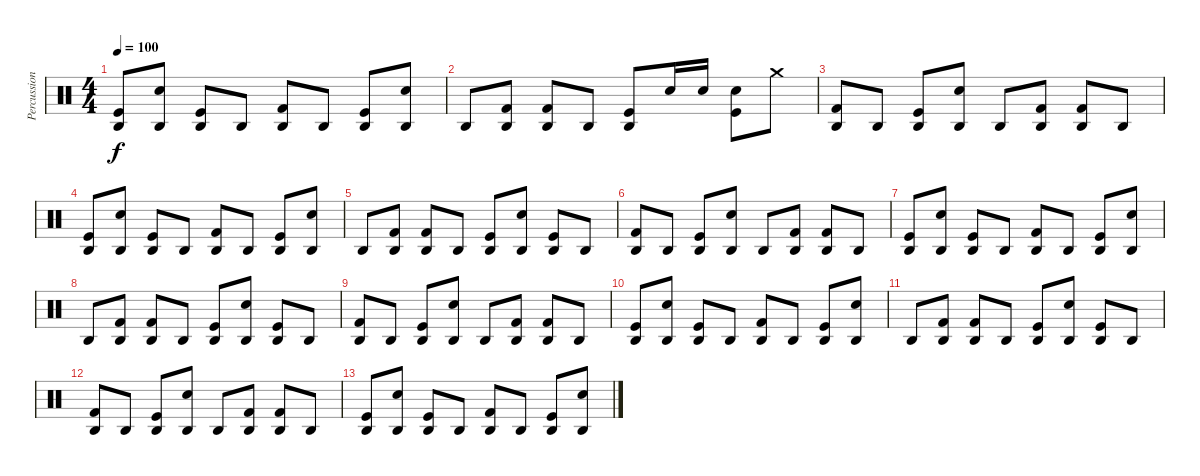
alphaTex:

\track ("Percussions" "Percussion") {instrument percussion}
\staff {score}
\articulation defaults
\ts (4 4)
\tempo 100
\clef neutral
\ks c
("Agogo high (hit)" "Kick (hit)").8{dy f} ("Agogo high (hit)" "Electric Snare (hit)").8 ("Agogo high (hit)" "Kick (hit)").8 "Agogo high (hit)".8 ("Agogo high (hit)" "Kick (hit) 2").8 "Agogo high (hit)".8 ("Agogo high (hit)" "Kick (hit)").8 ("Agogo high (hit)" "Electric Snare (hit)").8 |
"Agogo high (hit)".8 ("Agogo high (hit)" "Kick (hit) 2").8 ("Agogo high (hit)" "Kick (hit) 2").8 "Agogo high (hit)".8 ("Agogo high (hit)" "Kick (hit)").8 "Electric Snare (hit)".16 "Electric Snare (hit)".16 ("Electric Snare (hit)" "Kick (hit)").8 "Crash medium (hit)".8 |
("Agogo high (hit)" "Kick (hit) 2").8 "Agogo high (hit)".8 ("Agogo high (hit)" "Kick (hit)").8 ("Agogo high (hit)" "Electric Snare (hit)").8 "Agogo high (hit)".8 ("Agogo high (hit)" "Kick (hit) 2").8 ("Agogo high (hit)" "Kick (hit) 2").8 "Agogo high (hit)".8 |
("Agogo high (hit)" "Kick (hit)").8 ("Agogo high (hit)" "Electric Snare (hit)").8 ("Agogo high (hit)" "Kick (hit)").8 "Agogo high (hit)".8 ("Agogo high (hit)" "Kick (hit) 2").8 "Agogo high (hit)".8 ("Agogo high (hit)" "Kick (hit)").8 ("Agogo high (hit)" "Electric Snare (hit)").8 |
"Agogo high (hit)".8 ("Agogo high (hit)" "Kick (hit) 2").8 ("Agogo high (hit)" "Kick (hit) 2").8 "Agogo high (hit)".8 ("Agogo high (hit)" "Kick (hit)").8 ("Agogo high (hit)" "Electric Snare (hit)").8 ("Agogo high (hit)" "Kick (hit)").8 "Agogo high (hit)".8 |
("Agogo high (hit)" "Kick (hit) 2").8 "Agogo high (hit)".8 ("Agogo high (hit)" "Kick (hit)").8 ("Agogo high (hit)" "Electric Snare (hit)").8 "Agogo high (hit)".8 ("Agogo high (hit)" "Kick (hit) 2").8 ("Agogo high (hit)" "Kick (hit) 2").8 "Agogo high (hit)".8 |
("Agogo high (hit)" "Kick (hit)").8 ("Agogo high (hit)" "Electric Snare (hit)").8 ("Agogo high (hit)" "Kick (hit)").8 "Agogo high (hit)".8 ("Agogo high (hit)" "Kick (hit) 2").8 "Agogo high (hit)".8 ("Agogo high (hit)" "Kick (hit)").8 ("Agogo high (hit)" "Electric Snare (hit)").8 |
"Agogo high (hit)".8 ("Agogo high (hit)" "Kick (hit) 2").8 ("Agogo high (hit)" "Kick (hit) 2").8 "Agogo high (hit)".8 ("Agogo high (hit)" "Kick (hit)").8 ("Agogo high (hit)" "Electric Snare (hit)").8 ("Agogo high (hit)" "Kick (hit)").8 "Agogo high (hit)".8 |
("Agogo high (hit)" "Kick (hit) 2").8 "Agogo high (hit)".8 ("Agogo high (hit)" "Kick (hit)").8 ("Agogo high (hit)" "Electric Snare (hit)").8 "Agogo high (hit)".8 ("Agogo high (hit)" "Kick (hit) 2").8 ("Agogo high (hit)" "Kick (hit) 2").8 "Agogo high (hit)".8 |
("Agogo high (hit)" "Kick (hit)").8 ("Agogo high (hit)" "Electric Snare (hit)").8 ("Agogo high (hit)" "Kick (hit)").8 "Agogo high (hit)".8 ("Agogo high (hit)" "Kick (hit) 2").8 "Agogo high (hit)".8 ("Agogo high (hit)" "Kick (hit)").8 ("Agogo high (hit)" "Electric Snare (hit)").8 |
"Agogo high (hit)".8 ("Agogo high (hit)" "Kick (hit) 2").8 ("Agogo high (hit)" "Kick (hit) 2").8 "Agogo high (hit)".8 ("Agogo high (hit)" "Kick (hit)").8 ("Agogo high (hit)" "Electric Snare (hit)").8 ("Agogo high (hit)" "Kick (hit)").8 "Agogo high (hit)".8 |
("Agogo high (hit)" "Kick (hit) 2").8 "Agogo high (hit)".8 ("Agogo high (hit)" "Kick (hit)").8 ("Agogo high (hit)" "Electric Snare (hit)").8 "Agogo high (hit)".8 ("Agogo high (hit)" "Kick (hit) 2").8 ("Agogo high (hit)" "Kick (hit) 2").8 "Agogo high (hit)".8 |
("Agogo high (hit)" "Kick (hit)").8 ("Agogo high (hit)" "Electric Snare (hit)").8 ("Agogo high (hit)" "Kick (hit)").8 "Agogo high (hit)".8 ("Agogo high (hit)" "Kick (hit) 2").8 "Agogo high (hit)".8 ("Agogo high (hit)" "Kick (hit)").8 ("Agogo high (hit)" "Electric Snare (hit)").8
